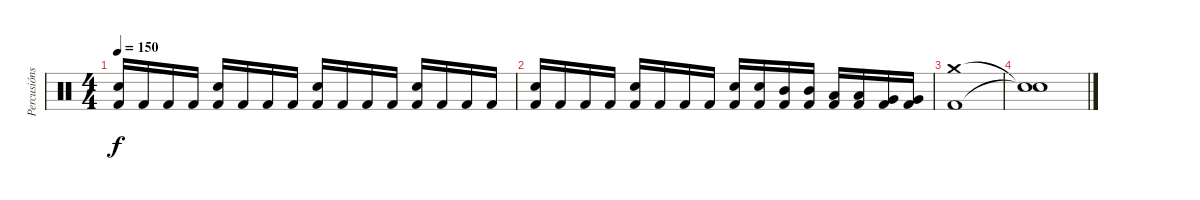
\track ("Percusións" "Percusións") {instrument percussion}
\staff {score}
\articulation defaults
\ts (4 4)
\tempo 150
\clef neutral
\ks c
("Snare (hit) 2" "Kick (hit) 2").16{dy f} "Kick (hit) 2".16 "Kick (hit) 2".16 "Kick (hit) 2".16 ("Snare (hit) 2" "Kick (hit) 2").16 "Kick (hit) 2".16 "Kick (hit) 2".16 "Kick (hit) 2".16 ("Snare (hit) 2" "Kick (hit) 2").16 "Kick (hit) 2".16 "Kick (hit) 2".16 "Kick (hit) 2".16 ("Snare (hit) 2" "Kick (hit) 2").16 "Kick (hit) 2".16 "Kick (hit) 2".16 "Kick (hit) 2".16 |
("Snare (hit) 2" "Kick (hit) 2").16 "Kick (hit) 2".16 "Kick (hit) 2".16 "Kick (hit) 2".16 ("Snare (hit) 2" "Kick (hit) 2").16 "Kick (hit) 2".16 "Kick (hit) 2".16 "Kick (hit) 2".16 ("Snare (hit) 2" "Kick (hit) 2").16 ("Snare (hit) 2" "Kick (hit) 2").16 ("Mid Tom (hit)" "Kick (hit) 2").16 ("Mid Tom (hit)" "Kick (hit) 2").16 ("Low Tom (hit)" "Kick (hit) 2").16 ("Low Tom (hit)" "Kick (hit) 2").16 ("Very Low Tom (hit)" "Kick (hit) 2").16 ("Very Low Tom (hit)" "Kick (hit) 2").16 |
("Crash medium (hit)" "Kick (hit) 2").1 |
("Snare (hit)"{t} "Snare (hit)"{t}).1
